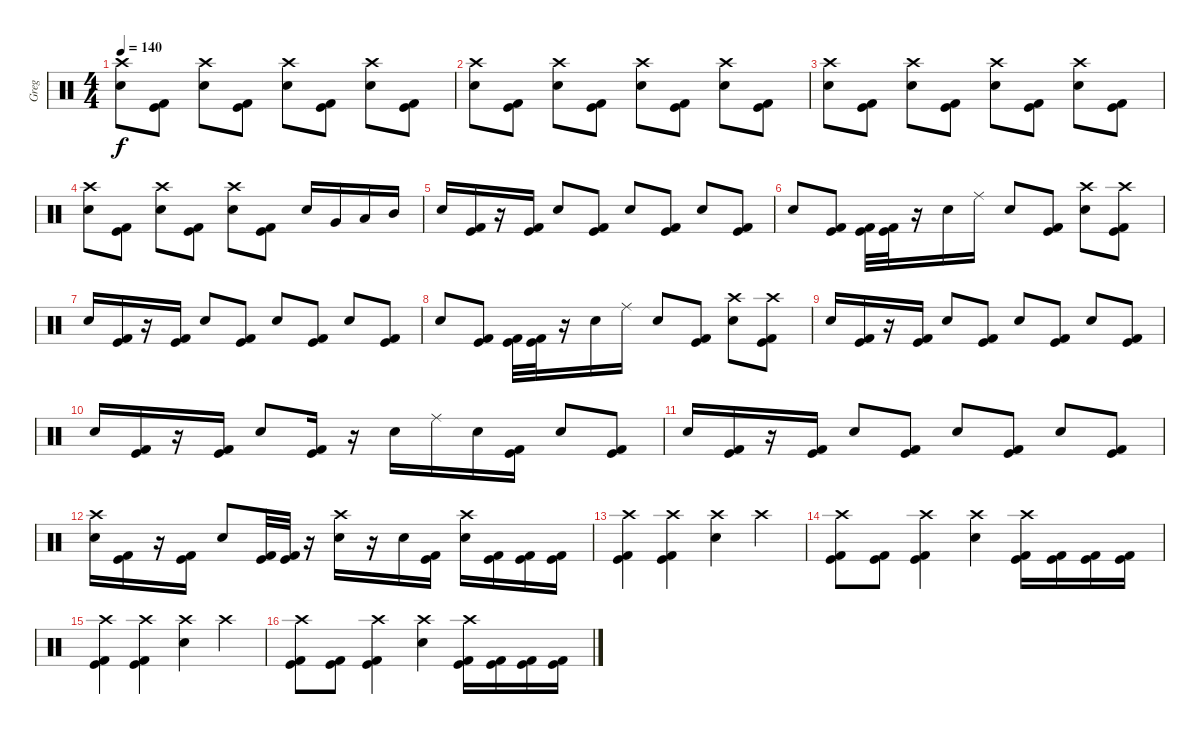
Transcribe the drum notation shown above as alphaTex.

\track ("Greg" "Greg") {instrument percussion}
\staff {score}
\articulation defaults
\ts (4 4)
\tempo 140
\clef neutral
\ks c
("Crash high (hit)" "Snare (hit) 2").8{dy f} ("Kick (hit)" "Kick (hit) 2").8 ("Crash high (hit)" "Snare (hit) 2").8 ("Kick (hit)" "Kick (hit) 2").8 ("Crash high (hit)" "Snare (hit) 2").8 ("Kick (hit)" "Kick (hit) 2").8 ("Crash high (hit)" "Snare (hit) 2").8 ("Kick (hit)" "Kick (hit) 2").8 |
("Crash high (hit)" "Snare (hit) 2").8 ("Kick (hit)" "Kick (hit) 2").8 ("Crash high (hit)" "Snare (hit) 2").8 ("Kick (hit)" "Kick (hit) 2").8 ("Crash high (hit)" "Snare (hit) 2").8 ("Kick (hit)" "Kick (hit) 2").8 ("Crash high (hit)" "Snare (hit) 2").8 ("Kick (hit)" "Kick (hit) 2").8 |
("Crash high (hit)" "Snare (hit) 2").8 ("Kick (hit)" "Kick (hit) 2").8 ("Crash high (hit)" "Snare (hit) 2").8 ("Kick (hit)" "Kick (hit) 2").8 ("Crash high (hit)" "Snare (hit) 2").8 ("Kick (hit)" "Kick (hit) 2").8 ("Crash high (hit)" "Snare (hit) 2").8 ("Kick (hit)" "Kick (hit) 2").8 |
("Crash high (hit)" "Snare (hit) 2").8 ("Kick (hit)" "Kick (hit) 2").8 ("Crash high (hit)" "Snare (hit) 2").8 ("Kick (hit)" "Kick (hit) 2").8 ("Crash high (hit)" "Snare (hit) 2").8 ("Kick (hit)" "Kick (hit) 2").8 "Snare (hit) 2".16 "Very Low Tom (hit)".16 "Low Tom (hit)".16 "Mid Tom (hit)".16 |
"Snare (hit) 2".16 ("Kick (hit)" "Kick (hit) 2").16 r.16 ("Kick (hit)" "Kick (hit) 2").16 "Snare (hit) 2".8 ("Kick (hit)" "Kick (hit) 2").8 "Snare (hit) 2".8 ("Kick (hit)" "Kick (hit) 2").8 "Snare (hit) 2".8 ("Kick (hit)" "Kick (hit) 2").8 |
"Snare (hit) 2".8 ("Kick (hit)" "Kick (hit) 2").8 ("Kick (hit)" "Kick (hit) 2").32 ("Kick (hit)" "Kick (hit) 2").32 r.16 "Snare (hit) 2".16 "Ride (middle)".16 "Snare (hit) 2".8 ("Kick (hit)" "Kick (hit) 2").8 ("Crash high (hit)" "Snare (hit) 2").8 ("Crash high (hit)" "Kick (hit)" "Kick (hit) 2").8 |
"Snare (hit) 2".16 ("Kick (hit)" "Kick (hit) 2").16 r.16 ("Kick (hit)" "Kick (hit) 2").16 "Snare (hit) 2".8 ("Kick (hit)" "Kick (hit) 2").8 "Snare (hit) 2".8 ("Kick (hit)" "Kick (hit) 2").8 "Snare (hit) 2".8 ("Kick (hit)" "Kick (hit) 2").8 |
"Snare (hit) 2".8 ("Kick (hit)" "Kick (hit) 2").8 ("Kick (hit)" "Kick (hit) 2").32 ("Kick (hit)" "Kick (hit) 2").32 r.16 "Snare (hit) 2".16 "Ride (middle)".16 "Snare (hit) 2".8 ("Kick (hit)" "Kick (hit) 2").8 ("Crash high (hit)" "Snare (hit) 2").8 ("Crash high (hit)" "Kick (hit)" "Kick (hit) 2").8 |
"Snare (hit) 2".16 ("Kick (hit)" "Kick (hit) 2").16 r.16 ("Kick (hit)" "Kick (hit) 2").16 "Snare (hit) 2".8 ("Kick (hit)" "Kick (hit) 2").8 "Snare (hit) 2".8 ("Kick (hit)" "Kick (hit) 2").8 "Snare (hit) 2".8 ("Kick (hit)" "Kick (hit) 2").8 |
"Snare (hit) 2".16 ("Kick (hit)" "Kick (hit) 2").16 r.16 ("Kick (hit)" "Kick (hit) 2").16 "Snare (hit) 2".8 ("Kick (hit)" "Kick (hit) 2").16 r.16 "Snare (hit) 2".16 "Ride (middle)".16 "Snare (hit) 2".16 ("Kick (hit)" "Kick (hit) 2").16 "Snare (hit) 2".8 ("Kick (hit)" "Kick (hit) 2").8 |
"Snare (hit) 2".16 ("Kick (hit)" "Kick (hit) 2").16 r.16 ("Kick (hit)" "Kick (hit) 2").16 "Snare (hit) 2".8 ("Kick (hit)" "Kick (hit) 2").8 "Snare (hit) 2".8 ("Kick (hit)" "Kick (hit) 2").8 "Snare (hit) 2".8 ("Kick (hit)" "Kick (hit) 2").8 |
("Crash high (hit)" "Snare (hit) 2").16 ("Kick (hit)" "Kick (hit) 2").16 r.16 ("Kick (hit)" "Kick (hit) 2").16 "Snare (hit) 2".8 ("Kick (hit)" "Kick (hit) 2").32 ("Kick (hit)" "Kick (hit) 2").32 r.16 ("Crash high (hit)" "Snare (hit) 2").16 r.16 "Snare (hit) 2".16 ("Kick (hit)" "Kick (hit) 2").16 ("Crash high (hit)" "Snare (hit) 2").16 ("Kick (hit)" "Kick (hit) 2").16 ("Kick (hit)" "Kick (hit) 2").16 ("Kick (hit)" "Kick (hit) 2").16 |
("Crash high (hit)" "Kick (hit)" "Kick (hit) 2").4 ("Crash high (hit)" "Kick (hit)" "Kick (hit) 2").4 ("Crash high (hit)" "Snare (hit) 2").4 "Crash high (hit)".4 |
("Crash high (hit)" "Kick (hit)" "Kick (hit) 2").8 ("Kick (hit)" "Kick (hit) 2").8 ("Crash high (hit)" "Kick (hit)" "Kick (hit) 2").4 ("Crash high (hit)" "Snare (hit) 2").4 ("Crash high (hit)" "Kick (hit)" "Kick (hit) 2").16 ("Kick (hit)" "Kick (hit) 2").16 ("Kick (hit)" "Kick (hit) 2").16 ("Kick (hit)" "Kick (hit) 2").16 |
("Crash high (hit)" "Kick (hit)" "Kick (hit) 2").4 ("Crash high (hit)" "Kick (hit)" "Kick (hit) 2").4 ("Crash high (hit)" "Snare (hit) 2").4 "Crash high (hit)".4 |
("Crash high (hit)" "Kick (hit)" "Kick (hit) 2").8 ("Kick (hit)" "Kick (hit) 2").8 ("Crash high (hit)" "Kick (hit)" "Kick (hit) 2").4 ("Crash high (hit)" "Snare (hit) 2").4 ("Crash high (hit)" "Kick (hit)" "Kick (hit) 2").16 ("Kick (hit)" "Kick (hit) 2").16 ("Kick (hit)" "Kick (hit) 2").16 ("Kick (hit)" "Kick (hit) 2").16
